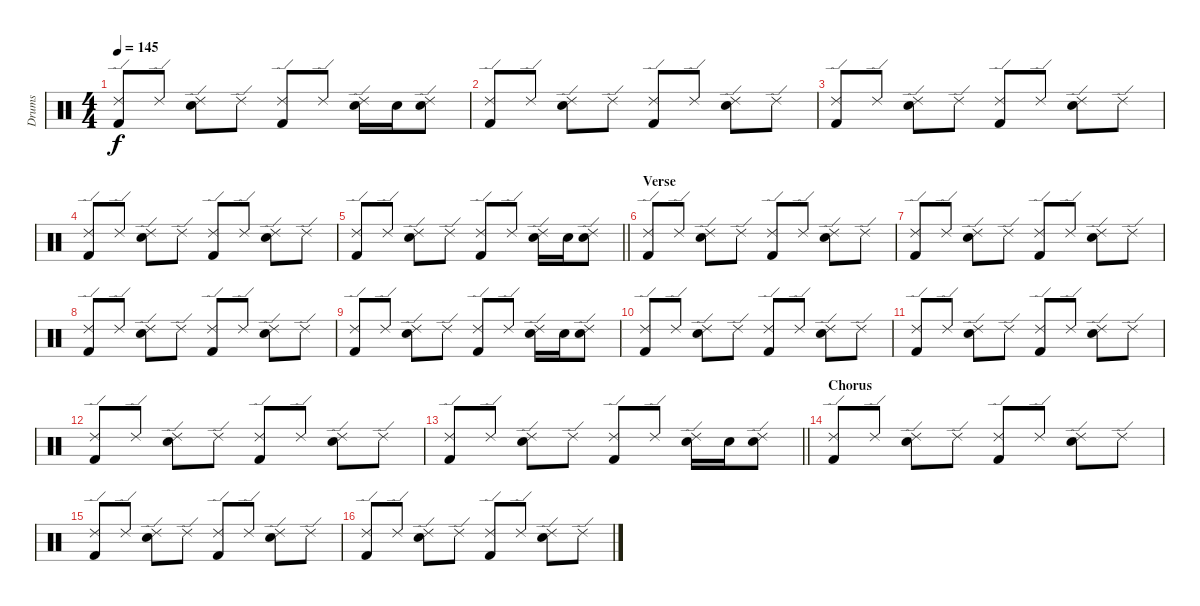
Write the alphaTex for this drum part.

\track ("Drums" "Drums") {instrument percussion}
\staff {score}
\articulation defaults
\ts (4 4)
\tempo 145
\clef neutral
\ks c
("Kick (hit) 2" "Ride (edge) 2").8{dy f} "Ride (edge) 2".8 ("Electric Snare (hit)" "Ride (edge) 2").8 "Ride (edge) 2".8 ("Kick (hit) 2" "Ride (edge) 2").8 "Ride (edge) 2".8 ("Electric Snare (hit)" "Ride (edge) 2").16 "Electric Snare (hit)".16 ("Electric Snare (hit)" "Ride (edge) 2").8 |
("Kick (hit) 2" "Ride (edge) 2").8 "Ride (edge) 2".8 ("Electric Snare (hit)" "Ride (edge) 2").8 "Ride (edge) 2".8 ("Kick (hit) 2" "Ride (edge) 2").8 "Ride (edge) 2".8 ("Electric Snare (hit)" "Ride (edge) 2").8 "Ride (edge) 2".8 |
("Kick (hit) 2" "Ride (edge) 2").8 "Ride (edge) 2".8 ("Electric Snare (hit)" "Ride (edge) 2").8 "Ride (edge) 2".8 ("Kick (hit) 2" "Ride (edge) 2").8 "Ride (edge) 2".8 ("Electric Snare (hit)" "Ride (edge) 2").8 "Ride (edge) 2".8 |
("Kick (hit) 2" "Ride (edge) 2").8 "Ride (edge) 2".8 ("Electric Snare (hit)" "Ride (edge) 2").8 "Ride (edge) 2".8 ("Kick (hit) 2" "Ride (edge) 2").8 "Ride (edge) 2".8 ("Electric Snare (hit)" "Ride (edge) 2").8 "Ride (edge) 2".8 |
\barLineRight lightlight
("Kick (hit) 2" "Ride (edge) 2").8 "Ride (edge) 2".8 ("Electric Snare (hit)" "Ride (edge) 2").8 "Ride (edge) 2".8 ("Kick (hit) 2" "Ride (edge) 2").8 "Ride (edge) 2".8 ("Electric Snare (hit)" "Ride (edge) 2").16 "Electric Snare (hit)".16 ("Electric Snare (hit)" "Ride (edge) 2").8 |
\section ("" "Verse")
("Kick (hit) 2" "Ride (edge) 2").8 "Ride (edge) 2".8 ("Electric Snare (hit)" "Ride (edge) 2").8 "Ride (edge) 2".8 ("Kick (hit) 2" "Ride (edge) 2").8 "Ride (edge) 2".8 ("Electric Snare (hit)" "Ride (edge) 2").8 "Ride (edge) 2".8 |
("Kick (hit) 2" "Ride (edge) 2").8 "Ride (edge) 2".8 ("Electric Snare (hit)" "Ride (edge) 2").8 "Ride (edge) 2".8 ("Kick (hit) 2" "Ride (edge) 2").8 "Ride (edge) 2".8 ("Electric Snare (hit)" "Ride (edge) 2").8 "Ride (edge) 2".8 |
("Kick (hit) 2" "Ride (edge) 2").8 "Ride (edge) 2".8 ("Electric Snare (hit)" "Ride (edge) 2").8 "Ride (edge) 2".8 ("Kick (hit) 2" "Ride (edge) 2").8 "Ride (edge) 2".8 ("Electric Snare (hit)" "Ride (edge) 2").8 "Ride (edge) 2".8 |
("Kick (hit) 2" "Ride (edge) 2").8 "Ride (edge) 2".8 ("Electric Snare (hit)" "Ride (edge) 2").8 "Ride (edge) 2".8 ("Kick (hit) 2" "Ride (edge) 2").8 "Ride (edge) 2".8 ("Electric Snare (hit)" "Ride (edge) 2").16 "Electric Snare (hit)".16 ("Electric Snare (hit)" "Ride (edge) 2").8 |
("Kick (hit) 2" "Ride (edge) 2").8 "Ride (edge) 2".8 ("Electric Snare (hit)" "Ride (edge) 2").8 "Ride (edge) 2".8 ("Kick (hit) 2" "Ride (edge) 2").8 "Ride (edge) 2".8 ("Electric Snare (hit)" "Ride (edge) 2").8 "Ride (edge) 2".8 |
("Kick (hit) 2" "Ride (edge) 2").8 "Ride (edge) 2".8 ("Electric Snare (hit)" "Ride (edge) 2").8 "Ride (edge) 2".8 ("Kick (hit) 2" "Ride (edge) 2").8 "Ride (edge) 2".8 ("Electric Snare (hit)" "Ride (edge) 2").8 "Ride (edge) 2".8 |
("Kick (hit) 2" "Ride (edge) 2").8 "Ride (edge) 2".8 ("Electric Snare (hit)" "Ride (edge) 2").8 "Ride (edge) 2".8 ("Kick (hit) 2" "Ride (edge) 2").8 "Ride (edge) 2".8 ("Electric Snare (hit)" "Ride (edge) 2").8 "Ride (edge) 2".8 |
\barLineRight lightlight
("Kick (hit) 2" "Ride (edge) 2").8 "Ride (edge) 2".8 ("Electric Snare (hit)" "Ride (edge) 2").8 "Ride (edge) 2".8 ("Kick (hit) 2" "Ride (edge) 2").8 "Ride (edge) 2".8 ("Electric Snare (hit)" "Ride (edge) 2").16 "Electric Snare (hit)".16 ("Electric Snare (hit)" "Ride (edge) 2").8 |
\section ("" "Chorus")
("Kick (hit) 2" "Ride (edge) 2").8 "Ride (edge) 2".8 ("Electric Snare (hit)" "Ride (edge) 2").8 "Ride (edge) 2".8 ("Kick (hit) 2" "Ride (edge) 2").8 "Ride (edge) 2".8 ("Electric Snare (hit)" "Ride (edge) 2").8 "Ride (edge) 2".8 |
("Kick (hit) 2" "Ride (edge) 2").8 "Ride (edge) 2".8 ("Electric Snare (hit)" "Ride (edge) 2").8 "Ride (edge) 2".8 ("Kick (hit) 2" "Ride (edge) 2").8 "Ride (edge) 2".8 ("Electric Snare (hit)" "Ride (edge) 2").8 "Ride (edge) 2".8 |
("Kick (hit) 2" "Ride (edge) 2").8 "Ride (edge) 2".8 ("Electric Snare (hit)" "Ride (edge) 2").8 "Ride (edge) 2".8 ("Kick (hit) 2" "Ride (edge) 2").8 "Ride (edge) 2".8 ("Electric Snare (hit)" "Ride (edge) 2").8 "Ride (edge) 2".8
